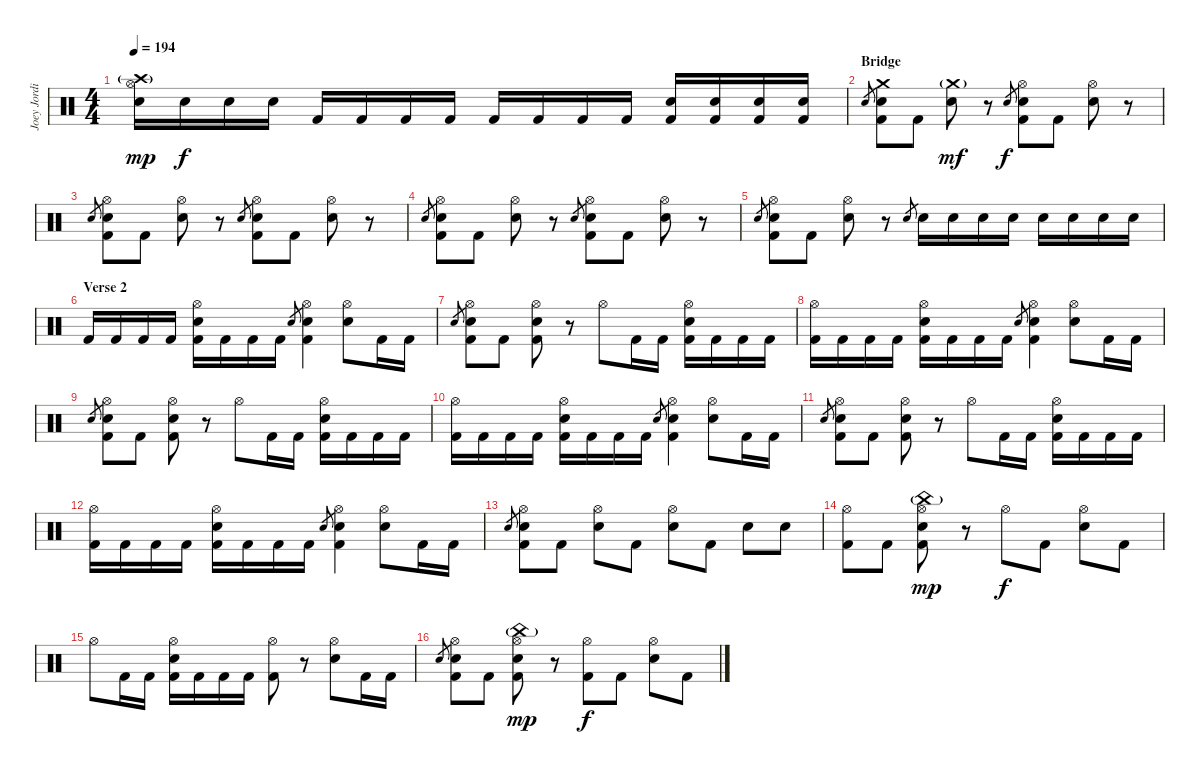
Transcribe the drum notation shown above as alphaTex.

\track ("Joey Jordison" "Joey Jordi") {instrument percussion}
\staff {score}
\articulation defaults
\ts (4 4)
\tempo 194
\clef neutral
\ks c
("Hi-Hat (open)" "Crash high (hit)"{g} "Snare (hit) 2").16{dy mp} "Snare (hit) 2".16{dy f} "Snare (hit) 2".16 "Snare (hit) 2".16 "Kick (hit) 2".16 "Kick (hit) 2".16 "Kick (hit) 2".16 "Kick (hit) 2".16 "Kick (hit) 2".16 "Kick (hit) 2".16 "Kick (hit) 2".16 "Kick (hit) 2".16 ("Snare (hit) 2" "Kick (hit) 2").16 ("Snare (hit) 2" "Kick (hit) 2").16 ("Snare (hit) 2" "Kick (hit) 2").16 ("Snare (hit) 2" "Kick (hit) 2").16 |
\section ("" "Bridge")
"Snare (hit) 2".8{gr} ("Crash medium (hit)" "Snare (hit)" "Kick (hit) 2").8 "Kick (hit) 2".8 ("Crash medium (hit)"{g} "Snare (hit) 2").8{dy mf} r.8 "Snare (hit) 2".8{gr dy f} ("Hi-Hat (open)" "Snare (hit)" "Kick (hit) 2").8 "Kick (hit) 2".8 ("Hi-Hat (open)" "Snare (hit) 2").8 r.8 |
"Snare (hit) 2".8{gr} ("Hi-Hat (open)" "Snare (hit)" "Kick (hit) 2").8 "Kick (hit) 2".8 ("Hi-Hat (open)" "Snare (hit) 2").8 r.8 "Snare (hit) 2".8{gr} ("Hi-Hat (open)" "Snare (hit)" "Kick (hit) 2").8 "Kick (hit) 2".8 ("Hi-Hat (open)" "Snare (hit) 2").8 r.8 |
"Snare (hit) 2".8{gr} ("Hi-Hat (open)" "Snare (hit)" "Kick (hit) 2").8 "Kick (hit) 2".8 ("Hi-Hat (open)" "Snare (hit) 2").8 r.8 "Snare (hit) 2".8{gr} ("Hi-Hat (open)" "Snare (hit)" "Kick (hit) 2").8 "Kick (hit) 2".8 ("Hi-Hat (open)" "Snare (hit) 2").8 r.8 |
"Snare (hit) 2".8{gr} ("Hi-Hat (open)" "Snare (hit)" "Kick (hit) 2").8 "Kick (hit) 2".8 ("Hi-Hat (open)" "Snare (hit) 2").8 r.8 "Snare (hit) 2".8{gr} "Snare (hit) 2".16 "Snare (hit) 2".16 "Snare (hit) 2".16 "Snare (hit) 2".16 "Snare (hit) 2".16 "Snare (hit) 2".16 "Snare (hit) 2".16 "Snare (hit) 2".16 |
\section ("" "Verse 2")
"Kick (hit) 2".16 "Kick (hit) 2".16 "Kick (hit) 2".16 "Kick (hit) 2".16 ("Hi-Hat (open)" "Snare (hit) 2" "Kick (hit) 2").16 "Kick (hit) 2".16 "Kick (hit) 2".16 "Kick (hit) 2".16 "Snare (hit) 2".8{gr} ("Hi-Hat (open)" "Snare (hit)" "Kick (hit) 2").4 ("Hi-Hat (open)" "Snare (hit) 2").8 "Kick (hit) 2".16 "Kick (hit) 2".16 |
"Snare (hit) 2".8{gr} ("Hi-Hat (open)" "Snare (hit)" "Kick (hit) 2").8 "Kick (hit) 2".8 ("Hi-Hat (open)" "Snare (hit) 2" "Kick (hit) 2").8 r.8 "Hi-Hat (open)".8 "Kick (hit) 2".16 "Kick (hit) 2".16 ("Hi-Hat (open)" "Snare (hit) 2" "Kick (hit) 2").16 "Kick (hit) 2".16 "Kick (hit) 2".16 "Kick (hit) 2".16 |
("Hi-Hat (open)" "Kick (hit) 2").16 "Kick (hit) 2".16 "Kick (hit) 2".16 "Kick (hit) 2".16 ("Hi-Hat (open)" "Snare (hit) 2" "Kick (hit) 2").16 "Kick (hit) 2".16 "Kick (hit) 2".16 "Kick (hit) 2".16 "Snare (hit) 2".8{gr} ("Hi-Hat (open)" "Snare (hit)" "Kick (hit) 2").4 ("Hi-Hat (open)" "Snare (hit) 2").8 "Kick (hit) 2".16 "Kick (hit) 2".16 |
"Snare (hit) 2".8{gr} ("Hi-Hat (open)" "Snare (hit)" "Kick (hit) 2").8 "Kick (hit) 2".8 ("Hi-Hat (open)" "Snare (hit) 2" "Kick (hit) 2").8 r.8 "Hi-Hat (open)".8 "Kick (hit) 2".16 "Kick (hit) 2".16 ("Hi-Hat (open)" "Snare (hit) 2" "Kick (hit) 2").16 "Kick (hit) 2".16 "Kick (hit) 2".16 "Kick (hit) 2".16 |
("Hi-Hat (open)" "Kick (hit) 2").16 "Kick (hit) 2".16 "Kick (hit) 2".16 "Kick (hit) 2".16 ("Hi-Hat (open)" "Snare (hit) 2" "Kick (hit) 2").16 "Kick (hit) 2".16 "Kick (hit) 2".16 "Kick (hit) 2".16 "Snare (hit) 2".8{gr} ("Hi-Hat (open)" "Snare (hit)" "Kick (hit) 2").4 ("Hi-Hat (open)" "Snare (hit) 2").8 "Kick (hit) 2".16 "Kick (hit) 2".16 |
"Snare (hit) 2".8{gr} ("Hi-Hat (open)" "Snare (hit)" "Kick (hit) 2").8 "Kick (hit) 2".8 ("Hi-Hat (open)" "Snare (hit) 2" "Kick (hit) 2").8 r.8 "Hi-Hat (open)".8 "Kick (hit) 2".16 "Kick (hit) 2".16 ("Hi-Hat (open)" "Snare (hit) 2" "Kick (hit) 2").16 "Kick (hit) 2".16 "Kick (hit) 2".16 "Kick (hit) 2".16 |
("Hi-Hat (open)" "Kick (hit) 2").16 "Kick (hit) 2".16 "Kick (hit) 2".16 "Kick (hit) 2".16 ("Hi-Hat (open)" "Snare (hit) 2" "Kick (hit) 2").16 "Kick (hit) 2".16 "Kick (hit) 2".16 "Kick (hit) 2".16 "Snare (hit) 2".8{gr} ("Hi-Hat (open)" "Snare (hit)" "Kick (hit) 2").4 ("Hi-Hat (open)" "Snare (hit) 2").8 "Kick (hit) 2".16 "Kick (hit) 2".16 |
"Snare (hit) 2".8{gr} ("Hi-Hat (open)" "Snare (hit)" "Kick (hit) 2").8 "Kick (hit) 2".8 ("Hi-Hat (open)" "Snare (hit) 2").8 "Kick (hit) 2".8 ("Hi-Hat (open)" "Snare (hit) 2").8 "Kick (hit) 2".8 "Snare (hit) 2".8 "Snare (hit) 2".8 |
("Hi-Hat (open)" "Kick (hit) 2").8 "Kick (hit) 2".8 ("Hi-Hat (open)" "China (hit)"{g} "Snare (hit) 2" "Kick (hit) 2").8{dy mp} r.8 "Hi-Hat (open)".8{dy f} "Kick (hit) 2".8 ("Hi-Hat (open)" "Snare (hit) 2").8 "Kick (hit) 2".8 |
"Hi-Hat (open)".8 "Kick (hit) 2".16 "Kick (hit) 2".16 ("Hi-Hat (open)" "Snare (hit) 2" "Kick (hit) 2").16 "Kick (hit) 2".16 "Kick (hit) 2".16 "Kick (hit) 2".16 ("Hi-Hat (open)" "Kick (hit) 2").8 r.8 ("Hi-Hat (open)" "Snare (hit) 2").8 "Kick (hit) 2".16 "Kick (hit) 2".16 |
"Snare (hit) 2".8{gr} ("Hi-Hat (open)" "Snare (hit)" "Kick (hit) 2").8 "Kick (hit) 2".8 ("Hi-Hat (open)" "China (hit)"{g} "Snare (hit) 2" "Kick (hit) 2").8{dy mp} r.8 ("Hi-Hat (open)" "Kick (hit) 2").8{dy f} "Kick (hit) 2".8 ("Hi-Hat (open)" "Snare (hit) 2").8 "Kick (hit) 2".8
